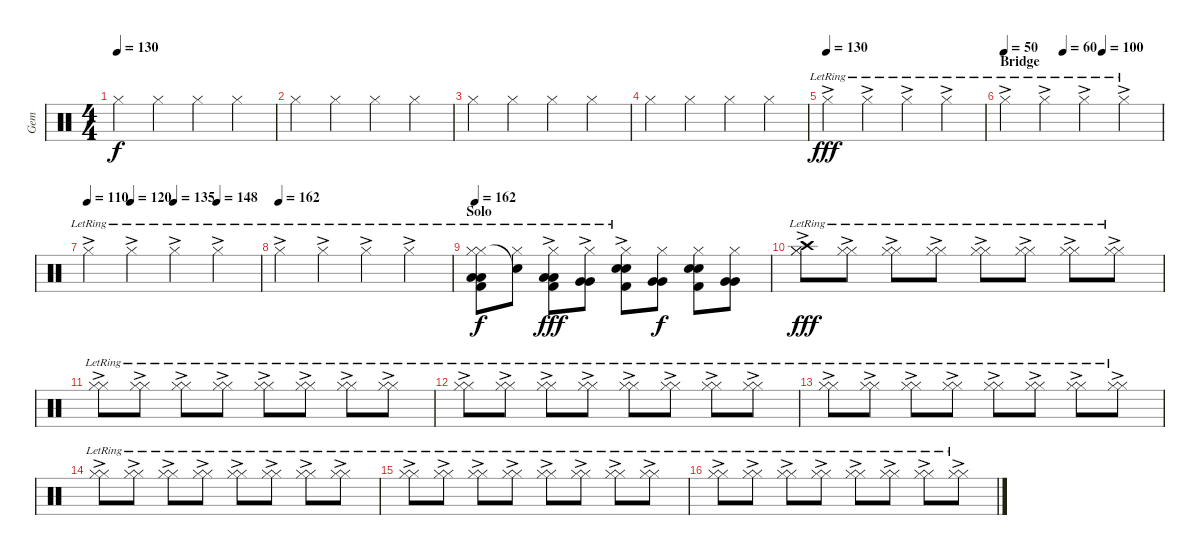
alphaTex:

\track ("Gem" "Gem") {instrument percussion}
\staff {score}
\articulation defaults
\ts (4 4)
\tempo 130
\clef neutral
\ks c "Hi-Hat (closed)".4{dy f} "Hi-Hat (closed)".4 "Hi-Hat (closed)".4 "Hi-Hat (closed)".4
|
"Hi-Hat (closed)".4 "Hi-Hat (closed)".4 "Hi-Hat (closed)".4 "Hi-Hat (closed)".4 |
"Hi-Hat (closed)".4 "Hi-Hat (closed)".4 "Hi-Hat (closed)".4 "Hi-Hat (closed)".4 |
"Hi-Hat (closed)".4 "Hi-Hat (closed)".4 "Hi-Hat (closed)".4 "Hi-Hat (closed)".4 |
\tempo (130)
"Hi-Hat (closed)"{ac lr}.4{dy fff} "Hi-Hat (closed)"{ac lr}.4 "Hi-Hat (closed)"{ac lr}.4 "Hi-Hat (closed)"{ac lr}.4 |
\section ("" "Bridge")
\tempo 50
\tempo (60 0.375)
\tempo (100 0.625)
"Hi-Hat (closed)"{ac lr}.4 "Hi-Hat (closed)"{ac lr}.4 "Hi-Hat (closed)"{ac lr}.4 "Hi-Hat (closed)"{ac lr}.4 |
\tempo 110
\tempo (120 0.25)
\tempo (135 0.5)
\tempo (148 0.75)
"Hi-Hat (closed)"{ac lr}.4 "Hi-Hat (closed)"{ac lr}.4 "Hi-Hat (closed)"{ac lr}.4 "Hi-Hat (closed)"{ac lr}.4 |
\tempo (162)
"Hi-Hat (closed)"{ac lr}.4 "Hi-Hat (closed)"{ac lr}.4 "Hi-Hat (closed)"{ac lr}.4 "Hi-Hat (closed)"{ac lr}.4 |
\section ("" "Solo")
\tempo 162
("Hi-Hat (closed)"{lr} "Hi-Hat (closed)"{lr} "Low Floor Tom (hit)"{lr} "Low Floor Tom (hit)" "Kick (hit) 2"{lr}).8{dy f} ("Hi-Hat (closed)"{lr} "Snare (hit)"{t}).8 ("Hi-Hat (closed)" "Low Floor Tom (hit)"{lr} "Low Floor Tom (hit)"{ac} "Kick (hit) 2").8{dy fff} ("Hi-Hat (closed)" "Very Low Tom (hit)"{ac lr} "Very Low Tom (hit)").8 ("Hi-Hat (closed)" "Electric Snare (hit)"{lr} "Electric Snare (hit)"{ac lr} "Kick (hit) 2").8 ("Hi-Hat (closed)" "Very Low Tom (hit)" "Very Low Tom (hit)").8{dy f} ("Hi-Hat (closed)" "Electric Snare (hit)" "Electric Snare (hit)" "Kick (hit) 2").8 ("Hi-Hat (closed)" "Very Low Tom (hit)" "Very Low Tom (hit)").8 |
("Hi-Hat (closed)"{ac lr} "Hi-Hat (closed)"{lr} "Crash high (hit)").8{dy fff} ("Hi-Hat (closed)"{ac lr} "Hi-Hat (closed)"{lr}).8 ("Hi-Hat (closed)"{ac lr} "Hi-Hat (closed)"{lr}).8 ("Hi-Hat (closed)"{ac lr} "Hi-Hat (closed)"{lr}).8 ("Hi-Hat (closed)"{ac lr} "Hi-Hat (closed)"{lr}).8 ("Hi-Hat (closed)"{ac lr} "Hi-Hat (closed)"{lr}).8 ("Hi-Hat (closed)"{ac lr} "Hi-Hat (closed)"{lr}).8 ("Hi-Hat (closed)"{ac lr} "Hi-Hat (closed)"{lr}).8 |
("Hi-Hat (closed)"{ac lr} "Hi-Hat (closed)"{lr}).8 ("Hi-Hat (closed)"{ac lr} "Hi-Hat (closed)"{lr}).8 ("Hi-Hat (closed)"{ac lr} "Hi-Hat (closed)"{lr}).8 ("Hi-Hat (closed)"{ac lr} "Hi-Hat (closed)"{lr}).8 ("Hi-Hat (closed)"{ac lr} "Hi-Hat (closed)"{lr}).8 ("Hi-Hat (closed)"{ac lr} "Hi-Hat (closed)"{lr}).8 ("Hi-Hat (closed)"{ac lr} "Hi-Hat (closed)"{lr}).8 ("Hi-Hat (closed)"{ac lr} "Hi-Hat (closed)"{lr}).8 |
("Hi-Hat (closed)"{ac lr} "Hi-Hat (closed)"{lr}).8 ("Hi-Hat (closed)"{ac lr} "Hi-Hat (closed)"{lr}).8 ("Hi-Hat (closed)"{ac lr} "Hi-Hat (closed)"{lr}).8 ("Hi-Hat (closed)"{ac lr} "Hi-Hat (closed)"{lr}).8 ("Hi-Hat (closed)"{ac lr} "Hi-Hat (closed)"{lr}).8 ("Hi-Hat (closed)"{ac lr} "Hi-Hat (closed)"{lr}).8 ("Hi-Hat (closed)"{ac lr} "Hi-Hat (closed)"{lr}).8 ("Hi-Hat (closed)"{ac lr} "Hi-Hat (closed)"{lr}).8 |
("Hi-Hat (closed)"{ac lr} "Hi-Hat (closed)"{lr}).8 ("Hi-Hat (closed)"{ac lr} "Hi-Hat (closed)"{lr}).8 ("Hi-Hat (closed)"{ac lr} "Hi-Hat (closed)"{lr}).8 ("Hi-Hat (closed)"{ac lr} "Hi-Hat (closed)"{lr}).8 ("Hi-Hat (closed)"{ac lr} "Hi-Hat (closed)"{lr}).8 ("Hi-Hat (closed)"{ac lr} "Hi-Hat (closed)"{lr}).8 ("Hi-Hat (closed)"{ac lr} "Hi-Hat (closed)"{lr}).8 ("Hi-Hat (closed)"{ac lr} "Hi-Hat (closed)"{lr}).8 |
("Hi-Hat (closed)"{ac lr} "Hi-Hat (closed)"{lr}).8 ("Hi-Hat (closed)"{ac lr} "Hi-Hat (closed)"{lr}).8 ("Hi-Hat (closed)"{ac lr} "Hi-Hat (closed)"{lr}).8 ("Hi-Hat (closed)"{ac lr} "Hi-Hat (closed)"{lr}).8 ("Hi-Hat (closed)"{ac lr} "Hi-Hat (closed)"{lr}).8 ("Hi-Hat (closed)"{ac lr} "Hi-Hat (closed)"{lr}).8 ("Hi-Hat (closed)"{ac lr} "Hi-Hat (closed)"{lr}).8 ("Hi-Hat (closed)"{ac lr} "Hi-Hat (closed)"{lr}).8 |
("Hi-Hat (closed)"{ac lr} "Hi-Hat (closed)"{lr}).8 ("Hi-Hat (closed)"{ac lr} "Hi-Hat (closed)"{lr}).8 ("Hi-Hat (closed)"{ac lr} "Hi-Hat (closed)"{lr}).8 ("Hi-Hat (closed)"{ac lr} "Hi-Hat (closed)"{lr}).8 ("Hi-Hat (closed)"{ac lr} "Hi-Hat (closed)"{lr}).8 ("Hi-Hat (closed)"{ac lr} "Hi-Hat (closed)"{lr}).8 ("Hi-Hat (closed)"{ac lr} "Hi-Hat (closed)"{lr}).8 ("Hi-Hat (closed)"{ac lr} "Hi-Hat (closed)"{lr}).8 |
("Hi-Hat (closed)"{ac lr} "Hi-Hat (closed)"{lr}).8 ("Hi-Hat (closed)"{ac lr} "Hi-Hat (closed)"{lr}).8 ("Hi-Hat (closed)"{ac lr} "Hi-Hat (closed)"{lr}).8 ("Hi-Hat (closed)"{ac lr} "Hi-Hat (closed)"{lr}).8 ("Hi-Hat (closed)"{ac lr} "Hi-Hat (closed)"{lr}).8 ("Hi-Hat (closed)"{ac lr} "Hi-Hat (closed)"{lr}).8 ("Hi-Hat (closed)"{ac lr} "Hi-Hat (closed)"{lr}).8 ("Hi-Hat (closed)"{ac lr} "Hi-Hat (closed)"{lr}).8
